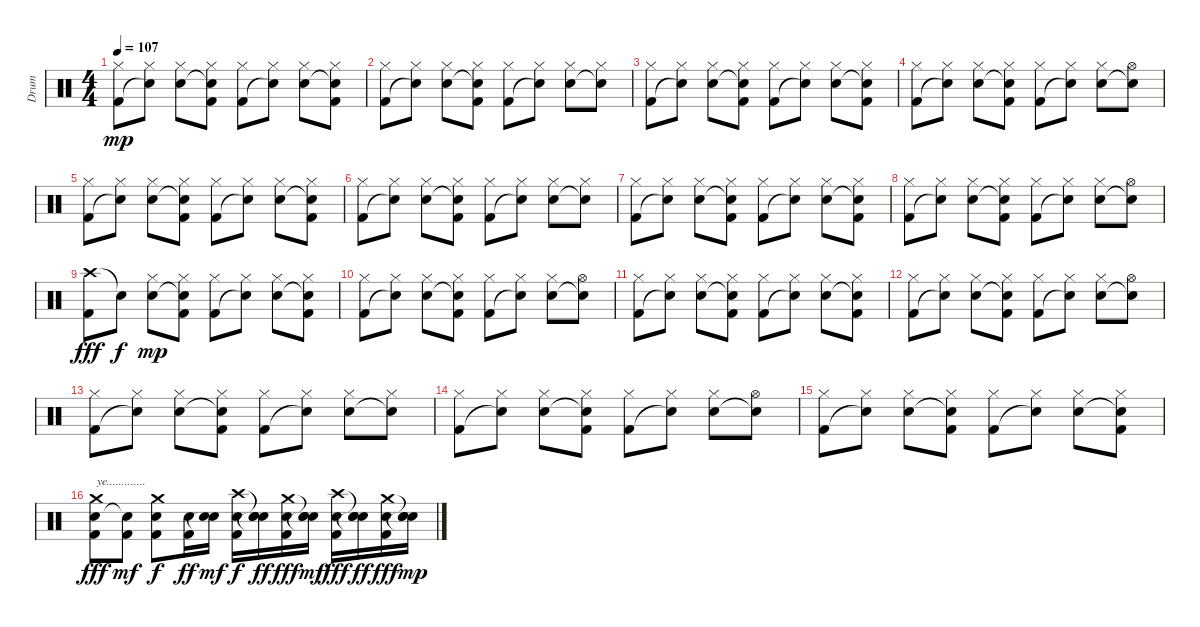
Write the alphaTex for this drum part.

\track ("Drum" "Drum") {instrument percussion}
\staff {score}
\articulation defaults
\ts (4 4)
\tempo 107
\clef neutral
\ks c
("Kick (hit) 2" "Hi-Hat (closed)").8{dy mp} ("Snare (hit)"{t} "Hi-Hat (closed)").8 ("Electric Snare (hit)" "Hi-Hat (closed)").8{txt ""} ("Snare (hit)"{t} "Kick (hit) 2" "Hi-Hat (closed)").8 ("Kick (hit) 2" "Hi-Hat (closed)").8 ("Snare (hit)"{t} "Hi-Hat (closed)").8 ("Electric Snare (hit)" "Hi-Hat (closed)").8 ("Snare (hit)"{t} "Kick (hit) 2" "Hi-Hat (closed)").8 |
("Kick (hit) 2" "Hi-Hat (closed)").8{txt ""} ("Snare (hit)"{t} "Hi-Hat (closed)").8 ("Electric Snare (hit)" "Hi-Hat (closed)").8 ("Snare (hit)"{t} "Kick (hit) 2" "Hi-Hat (closed)").8 ("Kick (hit) 2" "Hi-Hat (closed)").8 ("Snare (hit)"{t} "Hi-Hat (closed)").8 ("Electric Snare (hit)" "Hi-Hat (closed)").8 ("Snare (hit)"{t} "Hi-Hat (closed)").8 |
("Kick (hit) 2" "Hi-Hat (closed)").8{txt ""} ("Snare (hit)"{t} "Hi-Hat (closed)").8 ("Electric Snare (hit)" "Hi-Hat (closed)").8 ("Snare (hit)"{t} "Kick (hit) 2" "Hi-Hat (closed)").8 ("Kick (hit) 2" "Hi-Hat (closed)").8 ("Snare (hit)"{t} "Hi-Hat (closed)").8 ("Electric Snare (hit)" "Hi-Hat (closed)").8 ("Snare (hit)"{t} "Kick (hit) 2" "Hi-Hat (closed)").8 |
("Kick (hit) 2" "Hi-Hat (closed)").8{txt ""} ("Snare (hit)"{t} "Hi-Hat (closed)").8 ("Electric Snare (hit)" "Hi-Hat (closed)").8 ("Snare (hit)"{t} "Kick (hit) 2" "Hi-Hat (closed)").8 ("Kick (hit) 2" "Hi-Hat (closed)").8 ("Snare (hit)"{t} "Hi-Hat (closed)").8 ("Electric Snare (hit)" "Hi-Hat (closed)").8 ("Snare (hit)"{t} "Hi-Hat (open)").8 |
("Kick (hit) 2" "Hi-Hat (closed)").8{txt ""} ("Snare (hit)"{t} "Hi-Hat (closed)").8 ("Electric Snare (hit)" "Hi-Hat (closed)").8 ("Snare (hit)"{t} "Kick (hit) 2" "Hi-Hat (closed)").8 ("Kick (hit) 2" "Hi-Hat (closed)").8 ("Snare (hit)"{t} "Hi-Hat (closed)").8 ("Electric Snare (hit)" "Hi-Hat (closed)").8 ("Snare (hit)"{t} "Kick (hit) 2" "Hi-Hat (closed)").8 |
("Kick (hit) 2" "Hi-Hat (closed)").8{txt ""} ("Snare (hit)"{t} "Hi-Hat (closed)").8 ("Electric Snare (hit)" "Hi-Hat (closed)").8 ("Snare (hit)"{t} "Kick (hit) 2" "Hi-Hat (closed)").8 ("Kick (hit) 2" "Hi-Hat (closed)").8 ("Snare (hit)"{t} "Hi-Hat (closed)").8 ("Electric Snare (hit)" "Hi-Hat (closed)").8 ("Snare (hit)"{t} "Hi-Hat (closed)").8 |
("Kick (hit) 2" "Hi-Hat (closed)").8{txt ""} ("Snare (hit)"{t} "Hi-Hat (closed)").8 ("Electric Snare (hit)" "Hi-Hat (closed)").8 ("Snare (hit)"{t} "Kick (hit) 2" "Hi-Hat (closed)").8 ("Kick (hit) 2" "Hi-Hat (closed)").8 ("Snare (hit)"{t} "Hi-Hat (closed)").8 ("Electric Snare (hit)" "Hi-Hat (closed)").8 ("Snare (hit)"{t} "Kick (hit) 2" "Hi-Hat (closed)").8 |
("Kick (hit) 2" "Hi-Hat (closed)").8 ("Snare (hit)"{t} "Hi-Hat (closed)").8 ("Electric Snare (hit)" "Hi-Hat (closed)").8 ("Snare (hit)"{t} "Kick (hit) 2" "Hi-Hat (closed)").8 ("Kick (hit) 2" "Hi-Hat (closed)").8 ("Snare (hit)"{t} "Hi-Hat (closed)").8 ("Electric Snare (hit)" "Hi-Hat (closed)").8 ("Snare (hit)"{t} "Hi-Hat (open)").8 |
("Crash high (hit)" "Kick (hit) 2").8{dy fff} "Snare (hit)"{t}.8{txt "" dy f} ("Electric Snare (hit)" "Hi-Hat (closed)").8{dy mp} ("Snare (hit)"{t} "Kick (hit) 2" "Hi-Hat (closed)").8 ("Kick (hit) 2" "Hi-Hat (closed)").8 ("Snare (hit)"{t} "Hi-Hat (closed)").8 ("Electric Snare (hit)" "Hi-Hat (closed)").8 ("Snare (hit)"{t} "Kick (hit) 2" "Hi-Hat (closed)").8 |
("Kick (hit) 2" "Hi-Hat (closed)").8{txt ""} ("Snare (hit)"{t} "Hi-Hat (closed)").8 ("Electric Snare (hit)" "Hi-Hat (closed)").8 ("Snare (hit)"{t} "Kick (hit) 2" "Hi-Hat (closed)").8 ("Kick (hit) 2" "Hi-Hat (closed)").8 ("Snare (hit)"{t} "Hi-Hat (closed)").8 ("Electric Snare (hit)" "Hi-Hat (closed)").8 ("Snare (hit)"{t} "Hi-Hat (open)").8 |
("Kick (hit) 2" "Hi-Hat (closed)").8{txt ""} ("Snare (hit)"{t} "Hi-Hat (closed)").8 ("Electric Snare (hit)" "Hi-Hat (closed)").8 ("Snare (hit)"{t} "Kick (hit) 2" "Hi-Hat (closed)").8 ("Kick (hit) 2" "Hi-Hat (closed)").8 ("Snare (hit)"{t} "Hi-Hat (closed)").8 ("Electric Snare (hit)" "Hi-Hat (closed)").8 ("Snare (hit)"{t} "Kick (hit) 2" "Hi-Hat (closed)").8 |
("Kick (hit) 2" "Hi-Hat (closed)").8{txt ""} ("Snare (hit)"{t} "Hi-Hat (closed)").8 ("Electric Snare (hit)" "Hi-Hat (closed)").8 ("Snare (hit)"{t} "Kick (hit) 2" "Hi-Hat (closed)").8 ("Kick (hit) 2" "Hi-Hat (closed)").8 ("Snare (hit)"{t} "Hi-Hat (closed)").8 ("Electric Snare (hit)" "Hi-Hat (closed)").8 ("Snare (hit)"{t} "Hi-Hat (open)").8 |
("Kick (hit) 2" "Hi-Hat (closed)").8 ("Snare (hit)"{t} "Hi-Hat (closed)").8 ("Electric Snare (hit)" "Hi-Hat (closed)").8{txt ""} ("Snare (hit)"{t} "Kick (hit) 2" "Hi-Hat (closed)").8 ("Kick (hit) 2" "Hi-Hat (closed)").8 ("Snare (hit)"{t} "Hi-Hat (closed)").8 ("Electric Snare (hit)" "Hi-Hat (closed)").8 ("Snare (hit)"{t} "Hi-Hat (closed)").8 |
("Kick (hit) 2" "Hi-Hat (closed)").8{txt ""} ("Snare (hit)"{t} "Hi-Hat (closed)").8 ("Electric Snare (hit)" "Hi-Hat (closed)").8 ("Snare (hit)"{t} "Kick (hit) 2" "Hi-Hat (closed)").8 ("Kick (hit) 2" "Hi-Hat (closed)").8 ("Snare (hit)"{t} "Hi-Hat (closed)").8 ("Electric Snare (hit)" "Hi-Hat (closed)").8 ("Snare (hit)"{t} "Hi-Hat (open)").8 |
("Kick (hit) 2" "Hi-Hat (closed)").8{txt ""} ("Snare (hit)"{t} "Hi-Hat (closed)").8 ("Electric Snare (hit)" "Hi-Hat (closed)").8 ("Snare (hit)"{t} "Kick (hit) 2" "Hi-Hat (closed)").8 ("Kick (hit) 2" "Hi-Hat (closed)").8 ("Snare (hit)"{t} "Hi-Hat (closed)").8 ("Electric Snare (hit)" "Hi-Hat (closed)").8 ("Snare (hit)"{t} "Kick (hit) 2" "Hi-Hat (closed)").8 |
("Electric Snare (hit)" "Kick (hit) 2" "Crash medium (hit)").8{txt "ye............." dy fff} ("Snare (hit)"{t} "Kick (hit) 2").8{dy mf} ("Electric Snare (hit)" "Kick (hit) 2" "Crash medium (hit)").8{dy f} ("Electric Snare (hit)" "Kick (hit) 2").16{dy ff} ("Electric Snare (hit)" "Snare (hit)"{t}).16{dy mf} ("Electric Snare (hit)" "Kick (hit) 2" "Crash high (hit)").16{dy f} ("Electric Snare (hit)" "Snare (hit)"{t} "Snare (hit)"{t}).16{dy ff} ("Electric Snare (hit)" "Kick (hit) 2" "Crash medium (hit)").16{dy fff} ("Electric Snare (hit)" "Snare (hit)"{t} "Snare (hit)"{t}).16{dy mf} ("Electric Snare (hit)" "Kick (hit) 2" "Crash high (hit)").16{dy fff} ("Electric Snare (hit)" "Snare (hit)"{t} "Snare (hit)"{t}).16{dy ff} ("Electric Snare (hit)" "Kick (hit) 2" "Crash medium (hit)").16{dy fff} ("Electric Snare (hit)" "Snare (hit)"{t} "Snare (hit)"{t}).16{dy mp}
